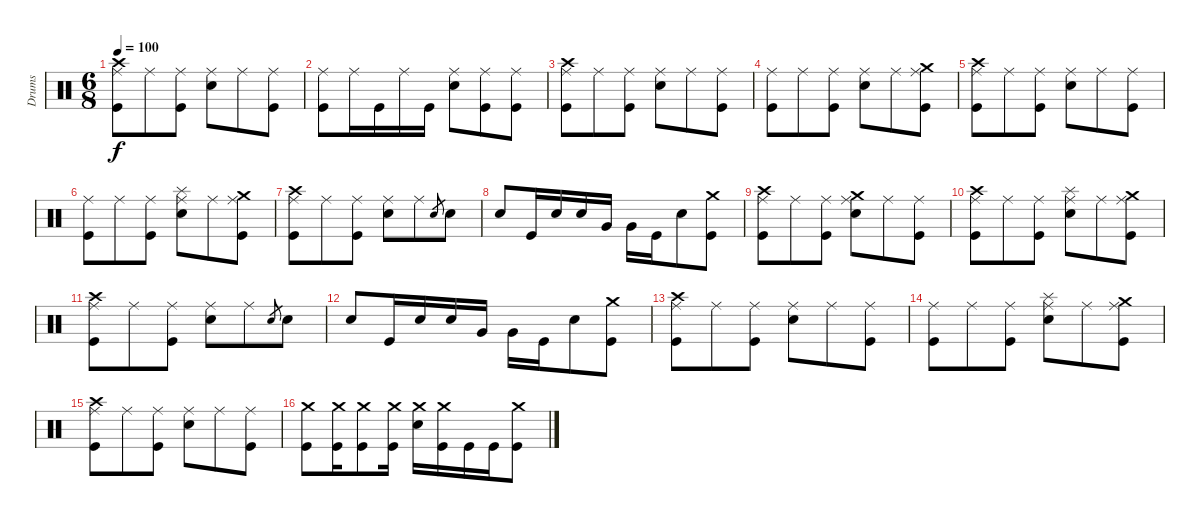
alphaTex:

\track ("Drums" "Drums") {instrument percussion}
\staff {score}
\articulation defaults
\ts (6 8)
\tempo 100
\clef neutral
\ks c
("Crash high (hit)" "Ride (middle)" "Kick (hit)").8{dy f} "Ride (middle)".8 ("Ride (middle)" "Kick (hit)").8 ("Ride (middle)" "Electric Snare (hit)").8 "Ride (middle)".8 ("Ride (middle)" "Kick (hit)").8 |
("Ride (middle)" "Kick (hit)").8 "Ride (middle)".16 "Kick (hit)".16 "Ride (middle)".16 "Kick (hit)".16 ("Ride (middle)" "Electric Snare (hit)").8 ("Ride (middle)" "Kick (hit)").8 ("Ride (middle)" "Kick (hit)").8 |
("Crash high (hit)" "Ride (middle)" "Kick (hit)").8 "Ride (middle)".8 ("Ride (middle)" "Kick (hit)").8 ("Ride (middle)" "Electric Snare (hit)").8 "Ride (middle)".8 ("Ride (middle)" "Kick (hit)").8 |
("Ride (middle)" "Kick (hit)").8 "Ride (middle)".8 ("Ride (middle)" "Kick (hit)").8 ("Ride (middle)" "Electric Snare (hit)").8 "Ride (middle)".8 ("Crash medium (hit)" "Ride (middle)" "Kick (hit)").8 |
("Crash high (hit)" "Ride (middle)" "Kick (hit)").8 "Ride (middle)".8 ("Ride (middle)" "Kick (hit)").8 ("Ride (middle)" "Electric Snare (hit)").8 "Ride (middle)".8 ("Ride (middle)" "Kick (hit)").8 |
("Ride (middle)" "Kick (hit)").8 "Ride (middle)".8 ("Ride (middle)" "Kick (hit)").8 ("Splash (hit)" "Ride (middle)" "Electric Snare (hit)").8 "Ride (middle)".8 ("Crash medium (hit)" "Ride (middle)" "Kick (hit)").8 |
("Crash high (hit)" "Ride (middle)" "Kick (hit)").8 "Ride (middle)".8 ("Ride (middle)" "Kick (hit)").8 ("Ride (middle)" "Electric Snare (hit)").8 "Ride (middle)".8 "Electric Snare (hit)".8{gr} "Electric Snare (hit)".8 |
"Electric Snare (hit)".8 "Kick (hit)".16 "Electric Snare (hit)".16 "Electric Snare (hit)".16 "Very Low Tom (hit)".16 "Very Low Tom (hit)".16 "Kick (hit)".16 "Electric Snare (hit)".8 ("Crash medium (hit)" "Kick (hit)").8 |
("Crash high (hit)" "Ride (middle)" "Kick (hit)").8 "Ride (middle)".8 ("Ride (middle)" "Kick (hit)").8 ("Crash medium (hit)" "Ride (middle)" "Electric Snare (hit)").8 "Ride (middle)".8 ("Ride (middle)" "Kick (hit)").8 |
("Crash high (hit)" "Ride (middle)" "Kick (hit)").8 "Ride (middle)".8 ("Ride (middle)" "Kick (hit)").8 ("Splash (hit)" "Ride (middle)" "Electric Snare (hit)").8 "Ride (middle)".8 ("Crash medium (hit)" "Ride (middle)" "Kick (hit)").8 |
("Crash high (hit)" "Ride (middle)" "Kick (hit)").8 "Ride (middle)".8 ("Ride (middle)" "Kick (hit)").8 ("Ride (middle)" "Electric Snare (hit)").8 "Ride (middle)".8 "Electric Snare (hit)".8{gr} "Electric Snare (hit)".8 |
"Electric Snare (hit)".8 "Kick (hit)".16 "Electric Snare (hit)".16 "Electric Snare (hit)".16 "Very Low Tom (hit)".16 "Very Low Tom (hit)".16 "Kick (hit)".16 "Electric Snare (hit)".8 ("Crash medium (hit)" "Kick (hit)").8 |
("Crash high (hit)" "Ride (middle)" "Kick (hit)").8 "Ride (middle)".8 ("Ride (middle)" "Kick (hit)").8 ("Ride (middle)" "Electric Snare (hit)").8 "Ride (middle)".8 ("Ride (middle)" "Kick (hit)").8 |
("Ride (middle)" "Kick (hit)").8 "Ride (middle)".8 ("Ride (middle)" "Kick (hit)").8 ("Splash (hit)" "Ride (middle)" "Electric Snare (hit)").8 "Ride (middle)".8 ("Crash medium (hit)" "Ride (middle)" "Kick (hit)").8 |
("Crash high (hit)" "Ride (middle)" "Kick (hit)").8 "Ride (middle)".8 ("Ride (middle)" "Kick (hit)").8 ("Ride (middle)" "Electric Snare (hit)").8 "Ride (middle)".8 ("Ride (middle)" "Kick (hit)").8 |
("Crash medium (hit)" "Kick (hit)").8 ("Crash medium (hit)" "Kick (hit)").16 ("Crash medium (hit)" "Kick (hit)").8 ("Crash medium (hit)" "Kick (hit)").16 ("Crash medium (hit)" "Electric Snare (hit)").16 ("Crash medium (hit)" "Kick (hit)").16 "Kick (hit)".16 "Kick (hit)".16 ("Crash medium (hit)" "Kick (hit)").8
